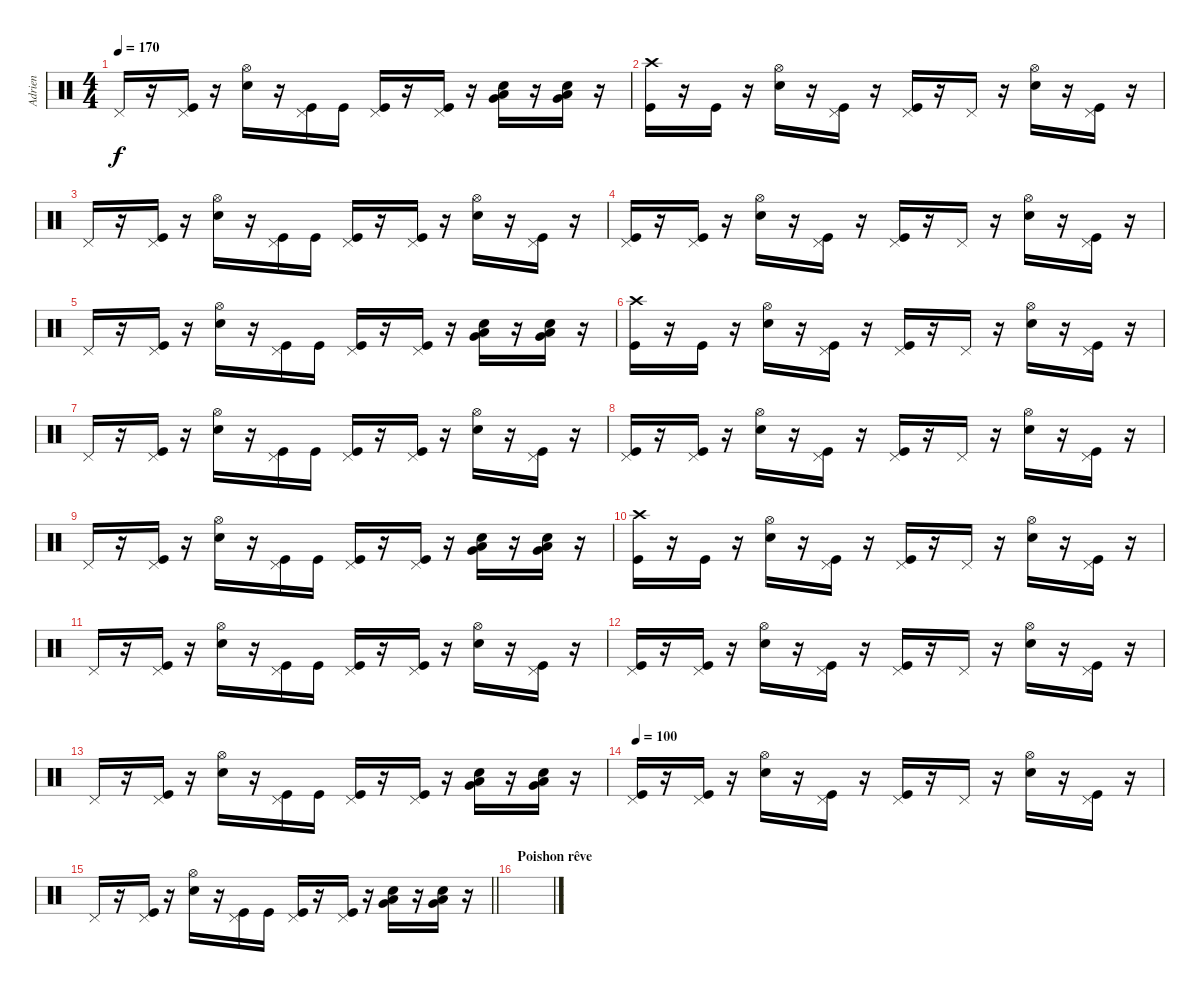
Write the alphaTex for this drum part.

\track ("Adrien" "Adrien") {instrument percussion}
\staff {score}
\articulation defaults
\ts (4 4)
\tempo 170
\clef neutral
\ks c "Pedal Hi-Hat (hit)".16{dy f}
r.16 ("Pedal Hi-Hat (hit)" "Kick (hit)").16 r.16 ("Hi-Hat (open)" "Electric Snare (hit)").16 r.16 ("Pedal Hi-Hat (hit)" "Kick (hit)").16 "Kick (hit)".16 ("Pedal Hi-Hat (hit)" "Kick (hit)").16 r.16 ("Pedal Hi-Hat (hit)" "Kick (hit)").16 r.16 ("Very Low Tom (hit)" "Low Floor Tom (hit)" "Electric Snare (hit)").16 r.16 ("Very Low Tom (hit)" "Low Floor Tom (hit)" "Electric Snare (hit)").16 r.16 |
("Crash high (hit)" "Kick (hit)").16 r.16 "Kick (hit)".16 r.16 ("Hi-Hat (open)" "Electric Snare (hit)").16 r.16 ("Pedal Hi-Hat (hit)" "Kick (hit)").16 r.16 ("Pedal Hi-Hat (hit)" "Kick (hit)").16 r.16 "Pedal Hi-Hat (hit)".16 r.16 ("Hi-Hat (open)" "Electric Snare (hit)").16 r.16 ("Pedal Hi-Hat (hit)" "Kick (hit)").16 r.16 |
"Pedal Hi-Hat (hit)".16 r.16 ("Pedal Hi-Hat (hit)" "Kick (hit)").16 r.16 ("Hi-Hat (open)" "Electric Snare (hit)").16 r.16 ("Pedal Hi-Hat (hit)" "Kick (hit)").16 "Kick (hit)".16 ("Pedal Hi-Hat (hit)" "Kick (hit)").16 r.16 ("Pedal Hi-Hat (hit)" "Kick (hit)").16 r.16 ("Hi-Hat (open)" "Electric Snare (hit)").16 r.16 ("Pedal Hi-Hat (hit)" "Kick (hit)").16 r.16 |
("Pedal Hi-Hat (hit)" "Kick (hit)").16 r.16 ("Pedal Hi-Hat (hit)" "Kick (hit)").16 r.16 ("Hi-Hat (open)" "Electric Snare (hit)").16 r.16 ("Pedal Hi-Hat (hit)" "Kick (hit)").16 r.16 ("Pedal Hi-Hat (hit)" "Kick (hit)").16 r.16 "Pedal Hi-Hat (hit)".16 r.16 ("Hi-Hat (open)" "Electric Snare (hit)").16 r.16 ("Pedal Hi-Hat (hit)" "Kick (hit)").16 r.16 |
"Pedal Hi-Hat (hit)".16 r.16 ("Pedal Hi-Hat (hit)" "Kick (hit)").16 r.16 ("Hi-Hat (open)" "Electric Snare (hit)").16 r.16 ("Pedal Hi-Hat (hit)" "Kick (hit)").16 "Kick (hit)".16 ("Pedal Hi-Hat (hit)" "Kick (hit)").16 r.16 ("Pedal Hi-Hat (hit)" "Kick (hit)").16 r.16 ("Very Low Tom (hit)" "Low Floor Tom (hit)" "Electric Snare (hit)").16 r.16 ("Very Low Tom (hit)" "Low Floor Tom (hit)" "Electric Snare (hit)").16 r.16 |
("Crash high (hit)" "Kick (hit)").16 r.16 "Kick (hit)".16 r.16 ("Hi-Hat (open)" "Electric Snare (hit)").16 r.16 ("Pedal Hi-Hat (hit)" "Kick (hit)").16 r.16 ("Pedal Hi-Hat (hit)" "Kick (hit)").16 r.16 "Pedal Hi-Hat (hit)".16 r.16 ("Hi-Hat (open)" "Electric Snare (hit)").16 r.16 ("Pedal Hi-Hat (hit)" "Kick (hit)").16 r.16 |
"Pedal Hi-Hat (hit)".16 r.16 ("Pedal Hi-Hat (hit)" "Kick (hit)").16 r.16 ("Hi-Hat (open)" "Electric Snare (hit)").16 r.16 ("Pedal Hi-Hat (hit)" "Kick (hit)").16 "Kick (hit)".16 ("Pedal Hi-Hat (hit)" "Kick (hit)").16 r.16 ("Pedal Hi-Hat (hit)" "Kick (hit)").16 r.16 ("Hi-Hat (open)" "Electric Snare (hit)").16 r.16 ("Pedal Hi-Hat (hit)" "Kick (hit)").16 r.16 |
("Pedal Hi-Hat (hit)" "Kick (hit)").16 r.16 ("Pedal Hi-Hat (hit)" "Kick (hit)").16 r.16 ("Hi-Hat (open)" "Electric Snare (hit)").16 r.16 ("Pedal Hi-Hat (hit)" "Kick (hit)").16 r.16 ("Pedal Hi-Hat (hit)" "Kick (hit)").16 r.16 "Pedal Hi-Hat (hit)".16 r.16 ("Hi-Hat (open)" "Electric Snare (hit)").16 r.16 ("Pedal Hi-Hat (hit)" "Kick (hit)").16 r.16 |
"Pedal Hi-Hat (hit)".16 r.16 ("Pedal Hi-Hat (hit)" "Kick (hit)").16 r.16 ("Hi-Hat (open)" "Electric Snare (hit)").16 r.16 ("Pedal Hi-Hat (hit)" "Kick (hit)").16 "Kick (hit)".16 ("Pedal Hi-Hat (hit)" "Kick (hit)").16 r.16 ("Pedal Hi-Hat (hit)" "Kick (hit)").16 r.16 ("Very Low Tom (hit)" "Low Floor Tom (hit)" "Electric Snare (hit)").16 r.16 ("Very Low Tom (hit)" "Low Floor Tom (hit)" "Electric Snare (hit)").16 r.16 |
("Crash high (hit)" "Kick (hit)").16 r.16 "Kick (hit)".16 r.16 ("Hi-Hat (open)" "Electric Snare (hit)").16 r.16 ("Pedal Hi-Hat (hit)" "Kick (hit)").16 r.16 ("Pedal Hi-Hat (hit)" "Kick (hit)").16 r.16 "Pedal Hi-Hat (hit)".16 r.16 ("Hi-Hat (open)" "Electric Snare (hit)").16 r.16 ("Pedal Hi-Hat (hit)" "Kick (hit)").16 r.16 |
"Pedal Hi-Hat (hit)".16 r.16 ("Pedal Hi-Hat (hit)" "Kick (hit)").16 r.16 ("Hi-Hat (open)" "Electric Snare (hit)").16 r.16 ("Pedal Hi-Hat (hit)" "Kick (hit)").16 "Kick (hit)".16 ("Pedal Hi-Hat (hit)" "Kick (hit)").16 r.16 ("Pedal Hi-Hat (hit)" "Kick (hit)").16 r.16 ("Hi-Hat (open)" "Electric Snare (hit)").16 r.16 ("Pedal Hi-Hat (hit)" "Kick (hit)").16 r.16 |
("Pedal Hi-Hat (hit)" "Kick (hit)").16 r.16 ("Pedal Hi-Hat (hit)" "Kick (hit)").16 r.16 ("Hi-Hat (open)" "Electric Snare (hit)").16 r.16 ("Pedal Hi-Hat (hit)" "Kick (hit)").16 r.16 ("Pedal Hi-Hat (hit)" "Kick (hit)").16 r.16 "Pedal Hi-Hat (hit)".16 r.16 ("Hi-Hat (open)" "Electric Snare (hit)").16 r.16 ("Pedal Hi-Hat (hit)" "Kick (hit)").16 r.16 |
"Pedal Hi-Hat (hit)".16 r.16 ("Pedal Hi-Hat (hit)" "Kick (hit)").16 r.16 ("Hi-Hat (open)" "Electric Snare (hit)").16 r.16 ("Pedal Hi-Hat (hit)" "Kick (hit)").16 "Kick (hit)".16 ("Pedal Hi-Hat (hit)" "Kick (hit)").16 r.16 ("Pedal Hi-Hat (hit)" "Kick (hit)").16 r.16 ("Very Low Tom (hit)" "Low Floor Tom (hit)" "Electric Snare (hit)").16 r.16 ("Very Low Tom (hit)" "Low Floor Tom (hit)" "Electric Snare (hit)").16 r.16 |
\tempo 100
("Pedal Hi-Hat (hit)" "Kick (hit)").16 r.16 ("Pedal Hi-Hat (hit)" "Kick (hit)").16 r.16 ("Hi-Hat (open)" "Electric Snare (hit)").16 r.16 ("Pedal Hi-Hat (hit)" "Kick (hit)").16 r.16 ("Pedal Hi-Hat (hit)" "Kick (hit)").16 r.16 "Pedal Hi-Hat (hit)".16 r.16 ("Hi-Hat (open)" "Electric Snare (hit)").16 r.16 ("Pedal Hi-Hat (hit)" "Kick (hit)").16 r.16 |
\barLineRight lightlight "Pedal Hi-Hat (hit)".16
r.16 ("Pedal Hi-Hat (hit)" "Kick (hit)").16 r.16 ("Hi-Hat (open)" "Electric Snare (hit)").16 r.16 ("Pedal Hi-Hat (hit)" "Kick (hit)").16 "Kick (hit)".16 ("Pedal Hi-Hat (hit)" "Kick (hit)").16 r.16 ("Pedal Hi-Hat (hit)" "Kick (hit)").16 r.16 ("Very Low Tom (hit)" "Low Floor Tom (hit)" "Electric Snare (hit)").16 r.16 ("Very Low Tom (hit)" "Low Floor Tom (hit)" "Electric Snare (hit)").16 r.16 |
\section ("" "Poishon rêve")
